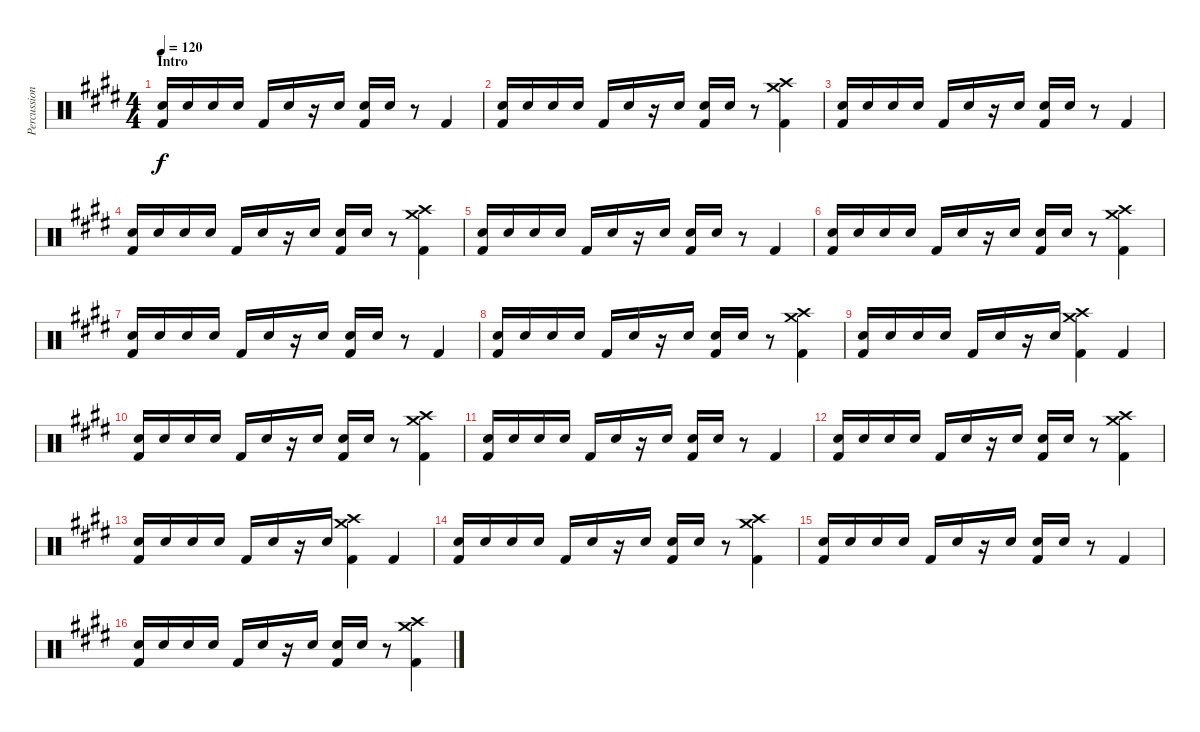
\track ("Percussion" "Percussion") {instrument percussion}
\staff {score}
\articulation defaults
\ts (4 4)
\section ("" "Intro")
\tempo 120
\clef neutral
\ks c#minor
("Snare (hit) 2" "Kick (hit) 2").16{dy f} "Snare (hit) 2".16 "Snare (hit) 2".16 "Snare (hit) 2".16 "Kick (hit) 2".16 "Snare (hit) 2".16 r.16 "Snare (hit) 2".16 ("Snare (hit) 2" "Kick (hit) 2").16 "Snare (hit) 2".16 r.8 "Kick (hit) 2".4 |
("Snare (hit) 2" "Kick (hit) 2").16 "Snare (hit) 2".16 "Snare (hit) 2".16 "Snare (hit) 2".16 "Kick (hit) 2".16 "Snare (hit) 2".16 r.16 "Snare (hit) 2".16 ("Snare (hit) 2" "Kick (hit) 2").16 "Snare (hit) 2".16 r.8 ("Crash high (hit)" "Crash medium (hit)" "Kick (hit) 2").4 |
("Snare (hit) 2" "Kick (hit) 2").16 "Snare (hit) 2".16 "Snare (hit) 2".16 "Snare (hit) 2".16 "Kick (hit) 2".16 "Snare (hit) 2".16 r.16 "Snare (hit) 2".16 ("Snare (hit) 2" "Kick (hit) 2").16 "Snare (hit) 2".16 r.8 "Kick (hit) 2".4 |
("Snare (hit) 2" "Kick (hit) 2").16 "Snare (hit) 2".16 "Snare (hit) 2".16 "Snare (hit) 2".16 "Kick (hit) 2".16 "Snare (hit) 2".16 r.16 "Snare (hit) 2".16 ("Snare (hit) 2" "Kick (hit) 2").16 "Snare (hit) 2".16 r.8 ("Crash high (hit)" "Crash medium (hit)" "Kick (hit) 2").4 |
("Snare (hit) 2" "Kick (hit) 2").16 "Snare (hit) 2".16 "Snare (hit) 2".16 "Snare (hit) 2".16 "Kick (hit) 2".16 "Snare (hit) 2".16 r.16 "Snare (hit) 2".16 ("Snare (hit) 2" "Kick (hit) 2").16 "Snare (hit) 2".16 r.8 "Kick (hit) 2".4 |
("Snare (hit) 2" "Kick (hit) 2").16 "Snare (hit) 2".16 "Snare (hit) 2".16 "Snare (hit) 2".16 "Kick (hit) 2".16 "Snare (hit) 2".16 r.16 "Snare (hit) 2".16 ("Snare (hit) 2" "Kick (hit) 2").16 "Snare (hit) 2".16 r.8 ("Crash high (hit)" "Crash medium (hit)" "Kick (hit) 2").4 |
("Snare (hit) 2" "Kick (hit) 2").16 "Snare (hit) 2".16 "Snare (hit) 2".16 "Snare (hit) 2".16 "Kick (hit) 2".16 "Snare (hit) 2".16 r.16 "Snare (hit) 2".16 ("Snare (hit) 2" "Kick (hit) 2").16 "Snare (hit) 2".16 r.8 "Kick (hit) 2".4 |
("Snare (hit) 2" "Kick (hit) 2").16 "Snare (hit) 2".16 "Snare (hit) 2".16 "Snare (hit) 2".16 "Kick (hit) 2".16 "Snare (hit) 2".16 r.16 "Snare (hit) 2".16 ("Snare (hit) 2" "Kick (hit) 2").16 "Snare (hit) 2".16 r.8 ("Crash high (hit)" "Crash medium (hit)" "Kick (hit) 2").4 |
("Snare (hit) 2" "Kick (hit) 2").16 "Snare (hit) 2".16 "Snare (hit) 2".16 "Snare (hit) 2".16 "Kick (hit) 2".16 "Snare (hit) 2".16 r.16 "Snare (hit) 2".16 ("Crash high (hit)" "Crash medium (hit)" "Kick (hit) 2").4 "Kick (hit) 2".4 |
("Snare (hit) 2" "Kick (hit) 2").16 "Snare (hit) 2".16 "Snare (hit) 2".16 "Snare (hit) 2".16 "Kick (hit) 2".16 "Snare (hit) 2".16 r.16 "Snare (hit) 2".16 ("Snare (hit) 2" "Kick (hit) 2").16 "Snare (hit) 2".16 r.8 ("Crash high (hit)" "Crash medium (hit)" "Kick (hit) 2").4 |
("Snare (hit) 2" "Kick (hit) 2").16 "Snare (hit) 2".16 "Snare (hit) 2".16 "Snare (hit) 2".16 "Kick (hit) 2".16 "Snare (hit) 2".16 r.16 "Snare (hit) 2".16 ("Snare (hit) 2" "Kick (hit) 2").16 "Snare (hit) 2".16 r.8 "Kick (hit) 2".4 |
("Snare (hit) 2" "Kick (hit) 2").16 "Snare (hit) 2".16 "Snare (hit) 2".16 "Snare (hit) 2".16 "Kick (hit) 2".16 "Snare (hit) 2".16 r.16 "Snare (hit) 2".16 ("Snare (hit) 2" "Kick (hit) 2").16 "Snare (hit) 2".16 r.8 ("Crash high (hit)" "Crash medium (hit)" "Kick (hit) 2").4 |
("Snare (hit) 2" "Kick (hit) 2").16 "Snare (hit) 2".16 "Snare (hit) 2".16 "Snare (hit) 2".16 "Kick (hit) 2".16 "Snare (hit) 2".16 r.16 "Snare (hit) 2".16 ("Crash high (hit)" "Crash medium (hit)" "Kick (hit) 2").4 "Kick (hit) 2".4 |
("Snare (hit) 2" "Kick (hit) 2").16 "Snare (hit) 2".16 "Snare (hit) 2".16 "Snare (hit) 2".16 "Kick (hit) 2".16 "Snare (hit) 2".16 r.16 "Snare (hit) 2".16 ("Snare (hit) 2" "Kick (hit) 2").16 "Snare (hit) 2".16 r.8 ("Crash high (hit)" "Crash medium (hit)" "Kick (hit) 2").4 |
("Snare (hit) 2" "Kick (hit) 2").16 "Snare (hit) 2".16 "Snare (hit) 2".16 "Snare (hit) 2".16 "Kick (hit) 2".16 "Snare (hit) 2".16 r.16 "Snare (hit) 2".16 ("Snare (hit) 2" "Kick (hit) 2").16 "Snare (hit) 2".16 r.8 "Kick (hit) 2".4 |
("Snare (hit) 2" "Kick (hit) 2").16 "Snare (hit) 2".16 "Snare (hit) 2".16 "Snare (hit) 2".16 "Kick (hit) 2".16 "Snare (hit) 2".16 r.16 "Snare (hit) 2".16 ("Snare (hit) 2" "Kick (hit) 2").16 "Snare (hit) 2".16 r.8 ("Crash high (hit)" "Crash medium (hit)" "Kick (hit) 2").4
